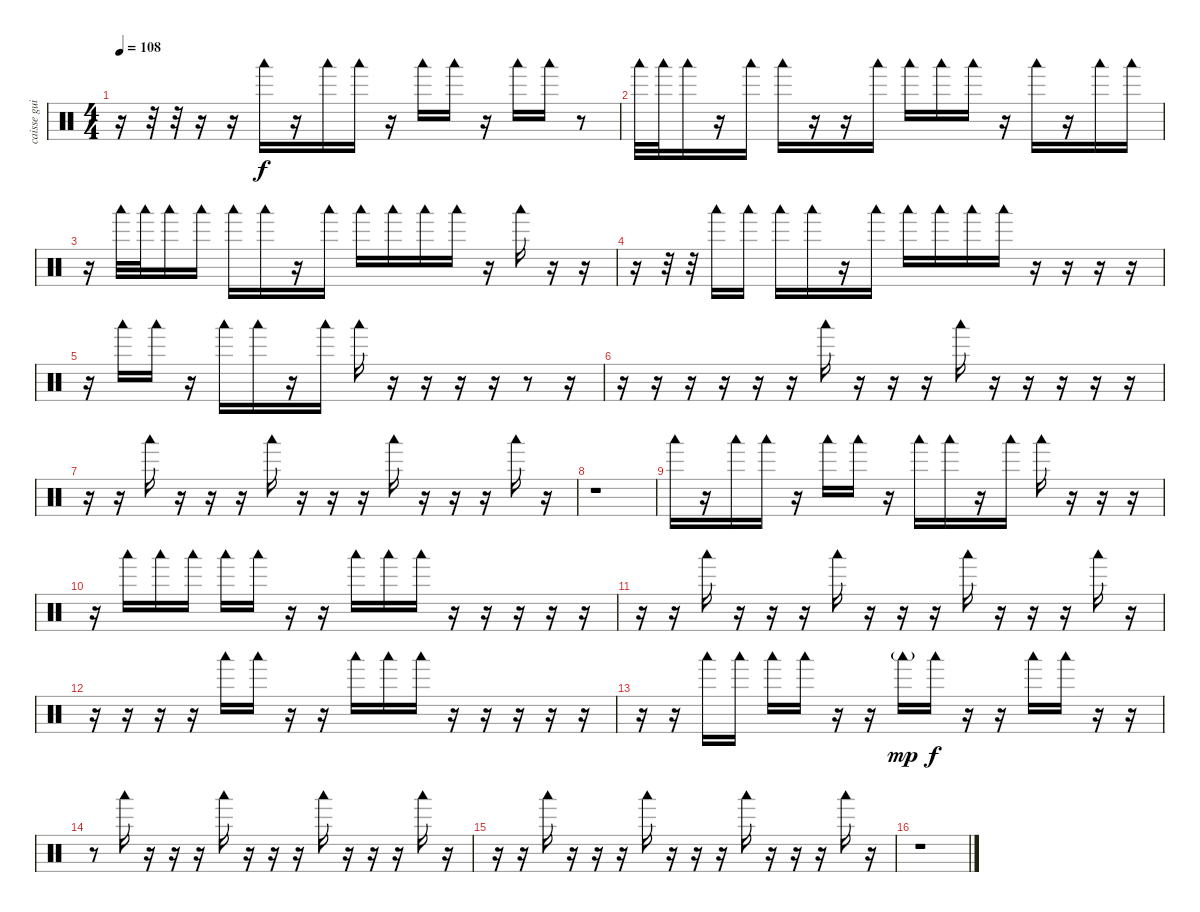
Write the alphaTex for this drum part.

\track ("caisse guitare Di Meola" "caisse gui") {instrument percussion}
\staff {score}
\articulation defaults
\ts (4 4)
\tempo 108
\clef neutral
\ks c
r.16{dy f} r.32 r.32 r.16 r.16 "Woodblock low (hit)".16 r.16 "Woodblock low (hit)".16 "Woodblock low (hit)".16 r.16 "Woodblock low (hit)".16 "Woodblock low (hit)".16 r.16 "Woodblock low (hit)".16 "Woodblock low (hit)".16 r.8 |
"Woodblock low (hit)".32 "Woodblock low (hit)".32 "Woodblock low (hit)".16 r.16 "Woodblock low (hit)".16 "Woodblock low (hit)".16 r.16 r.16 "Woodblock low (hit)".16 "Woodblock low (hit)".16 "Woodblock low (hit)".16 "Woodblock low (hit)".16 r.16 "Woodblock low (hit)".16 r.16 "Woodblock low (hit)".16 "Woodblock low (hit)".16 |
r.16 "Woodblock low (hit)".32 "Woodblock low (hit)".32 "Woodblock low (hit)".16 "Woodblock low (hit)".16 "Woodblock low (hit)".16 "Woodblock low (hit)".16 r.16 "Woodblock low (hit)".16 "Woodblock low (hit)".16 "Woodblock low (hit)".16 "Woodblock low (hit)".16 "Woodblock low (hit)".16 r.16 "Woodblock low (hit)".16 r.16 r.16 |
r.16 r.32 r.32 "Woodblock low (hit)".16 "Woodblock low (hit)".16 "Woodblock low (hit)".16 "Woodblock low (hit)".16 r.16 "Woodblock low (hit)".16 "Woodblock low (hit)".16 "Woodblock low (hit)".16 "Woodblock low (hit)".16 "Woodblock low (hit)".16 r.16 r.16 r.16 r.16 |
r.16 "Woodblock low (hit)".16 "Woodblock low (hit)".16 r.16 "Woodblock low (hit)".16 "Woodblock low (hit)".16 r.16 "Woodblock low (hit)".16 "Woodblock low (hit)".16 r.16 r.16 r.16 r.16 r.8 r.16 |
r.16 r.16 r.16 r.16 r.16 r.16 "Woodblock low (hit)".16 r.16 r.16 r.16 "Woodblock low (hit)".16 r.16 r.16 r.16 r.16 r.16 |
r.16 r.16 "Woodblock low (hit)".16 r.16 r.16 r.16 "Woodblock low (hit)".16 r.16 r.16 r.16 "Woodblock low (hit)".16 r.16 r.16 r.16 "Woodblock low (hit)".16 r.16 |
r.1 |
"Woodblock low (hit)".16 r.16 "Woodblock low (hit)".16 "Woodblock low (hit)".16 r.16 "Woodblock low (hit)".16 "Woodblock low (hit)".16 r.16 "Woodblock low (hit)".16 "Woodblock low (hit)".16 r.16 "Woodblock low (hit)".16 "Woodblock low (hit)".16 r.16 r.16 r.16 |
r.16 "Woodblock low (hit)".16 "Woodblock low (hit)".16 "Woodblock low (hit)".16 "Woodblock low (hit)".16 "Woodblock low (hit)".16 r.16 r.16 "Woodblock low (hit)".16 "Woodblock low (hit)".16 "Woodblock low (hit)".16 r.16 r.16 r.16 r.16 r.16 |
r.16 r.16 "Woodblock low (hit)".16 r.16 r.16 r.16 "Woodblock low (hit)".16 r.16 r.16 r.16 "Woodblock low (hit)".16 r.16 r.16 r.16 "Woodblock low (hit)".16 r.16 |
r.16 r.16 r.16 r.16 "Woodblock low (hit)".16 "Woodblock low (hit)".16 r.16 r.16 "Woodblock low (hit)".16 "Woodblock low (hit)".16 "Woodblock low (hit)".16 r.16 r.16 r.16 r.16 r.16 |
r.16 r.16 "Woodblock low (hit)".16 "Woodblock low (hit)".16 "Woodblock low (hit)".16 "Woodblock low (hit)".16 r.16 r.16 "Woodblock low (hit)"{g}.16{dy mp} "Woodblock low (hit)".16{dy f} r.16 r.16 "Woodblock low (hit)".16 "Woodblock low (hit)".16 r.16 r.16 |
r.8 "Woodblock low (hit)".16 r.16 r.16 r.16 "Woodblock low (hit)".16 r.16 r.16 r.16 "Woodblock low (hit)".16 r.16 r.16 r.16 "Woodblock low (hit)".16 r.16 |
r.16 r.16 "Woodblock low (hit)".16 r.16 r.16 r.16 "Woodblock low (hit)".16 r.16 r.16 r.16 "Woodblock low (hit)".16 r.16 r.16 r.16 "Woodblock low (hit)".16 r.16 |
r.1
